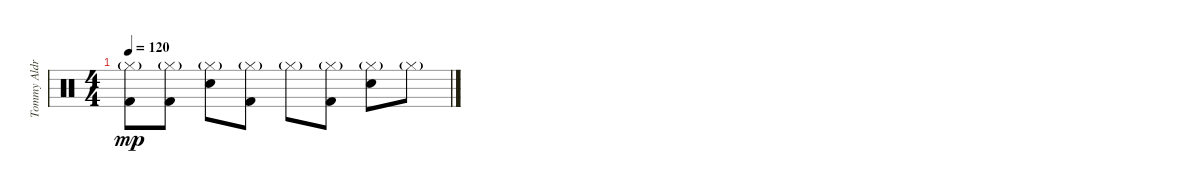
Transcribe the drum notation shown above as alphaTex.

\track ("Tommy Aldridge" "Tommy Aldr") {instrument percussion}
\staff {score}
\articulation defaults
\ts (4 4)
\tempo 120
\clef neutral
\ks c
("Hi-Hat (closed)"{g} "Kick (hit) 2").8{dy mp} ("Hi-Hat (closed)"{g} "Kick (hit) 2").8 ("Hi-Hat (closed)"{g} "Snare (hit) 2").8 ("Hi-Hat (closed)"{g} "Kick (hit) 2").8 "Hi-Hat (closed)"{g}.8 ("Hi-Hat (closed)"{g} "Kick (hit) 2").8 ("Hi-Hat (closed)"{g} "Snare (hit) 2").8 "Hi-Hat (closed)"{g}.8
